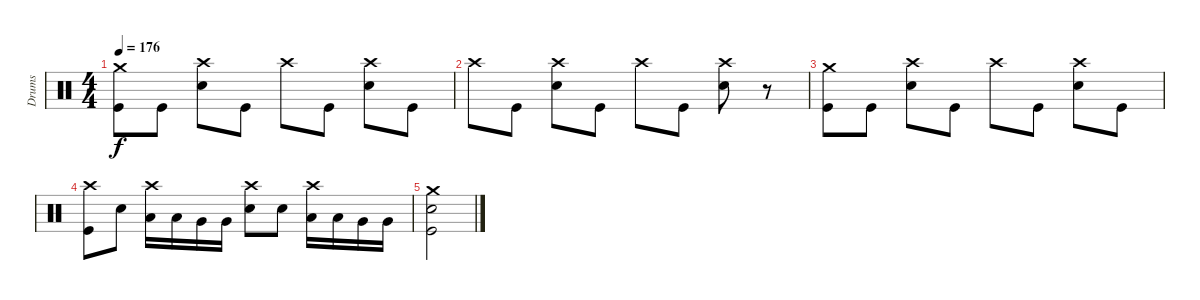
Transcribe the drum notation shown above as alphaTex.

\track ("Drums" "Drums") {instrument percussion}
\staff {score}
\articulation defaults
\ts (4 4)
\tempo 176
\clef neutral
\ks c
("Crash medium (hit)" "Kick (hit)").8{dy f} "Kick (hit)".8 ("Crash high (hit)" "Electric Snare (hit)").8 "Kick (hit)".8 "Crash high (hit)".8 "Kick (hit)".8 ("Crash high (hit)" "Electric Snare (hit)").8 "Kick (hit)".8 |
"Crash high (hit)".8 "Kick (hit)".8 ("Crash high (hit)" "Electric Snare (hit)").8 "Kick (hit)".8 "Crash high (hit)".8 "Kick (hit)".8 ("Crash high (hit)" "Electric Snare (hit)").8 r.8 |
("Crash medium (hit)" "Kick (hit)").8 "Kick (hit)".8 ("Crash high (hit)" "Electric Snare (hit)").8 "Kick (hit)".8 "Crash high (hit)".8 "Kick (hit)".8 ("Crash high (hit)" "Electric Snare (hit)").8 "Kick (hit)".8 |
("Crash high (hit)" "Kick (hit)").8 "Electric Snare (hit)".8 ("Crash high (hit)" "Low Tom (hit)").16 "Low Tom (hit)".16 "Very Low Tom (hit)".16 "Very Low Tom (hit)".16 ("Crash high (hit)" "Electric Snare (hit)").8 "Electric Snare (hit)".8 ("Crash high (hit)" "Low Tom (hit)").16 "Low Tom (hit)".16 "Very Low Tom (hit)".16 "Very Low Tom (hit)".16 |
("Crash medium (hit)" "Electric Snare (hit)" "Kick (hit)").2
